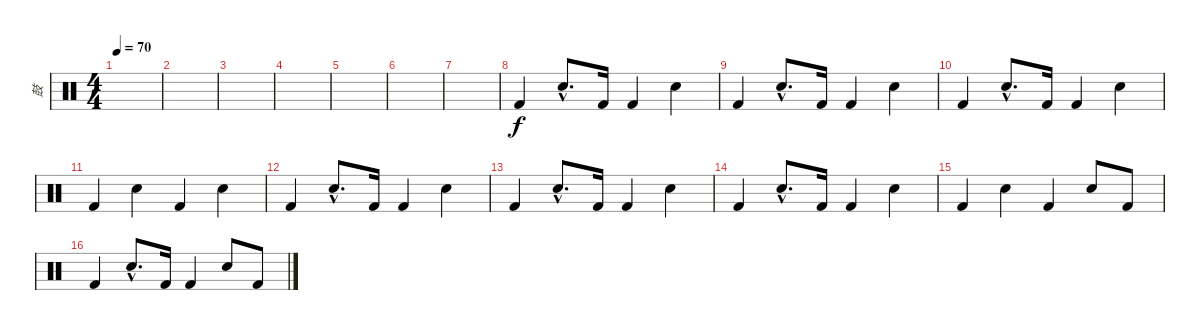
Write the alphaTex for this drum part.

\track ("鼓" "鼓") {instrument percussion}
\staff {score}
\articulation defaults
\ts (4 4)
\tempo 70
\clef neutral
\ks c
|
|
|
|
|
|
|
"Kick (hit) 2".4 "Electric Snare (hit)"{hac}.8{d} "Kick (hit) 2".16 "Kick (hit) 2".4 "Electric Snare (hit)".4 |
"Kick (hit) 2".4 "Electric Snare (hit)"{hac}.8{d} "Kick (hit) 2".16 "Kick (hit) 2".4 "Electric Snare (hit)".4 |
"Kick (hit) 2".4 "Electric Snare (hit)"{hac}.8{d} "Kick (hit) 2".16 "Kick (hit) 2".4 "Electric Snare (hit)".4 |
"Kick (hit) 2".4 "Electric Snare (hit)".4 "Kick (hit) 2".4 "Electric Snare (hit)".4 |
"Kick (hit) 2".4 "Electric Snare (hit)"{hac}.8{d} "Kick (hit) 2".16 "Kick (hit) 2".4 "Electric Snare (hit)".4 |
"Kick (hit) 2".4 "Electric Snare (hit)"{hac}.8{d} "Kick (hit) 2".16 "Kick (hit) 2".4 "Electric Snare (hit)".4 |
"Kick (hit) 2".4 "Electric Snare (hit)"{hac}.8{d} "Kick (hit) 2".16 "Kick (hit) 2".4 "Electric Snare (hit)".4 |
"Kick (hit) 2".4 "Electric Snare (hit)".4 "Kick (hit) 2".4 "Electric Snare (hit)".8 "Kick (hit) 2".8 |
"Kick (hit) 2".4 "Electric Snare (hit)"{hac}.8{d} "Kick (hit) 2".16 "Kick (hit) 2".4 "Electric Snare (hit)".8 "Kick (hit) 2".8
